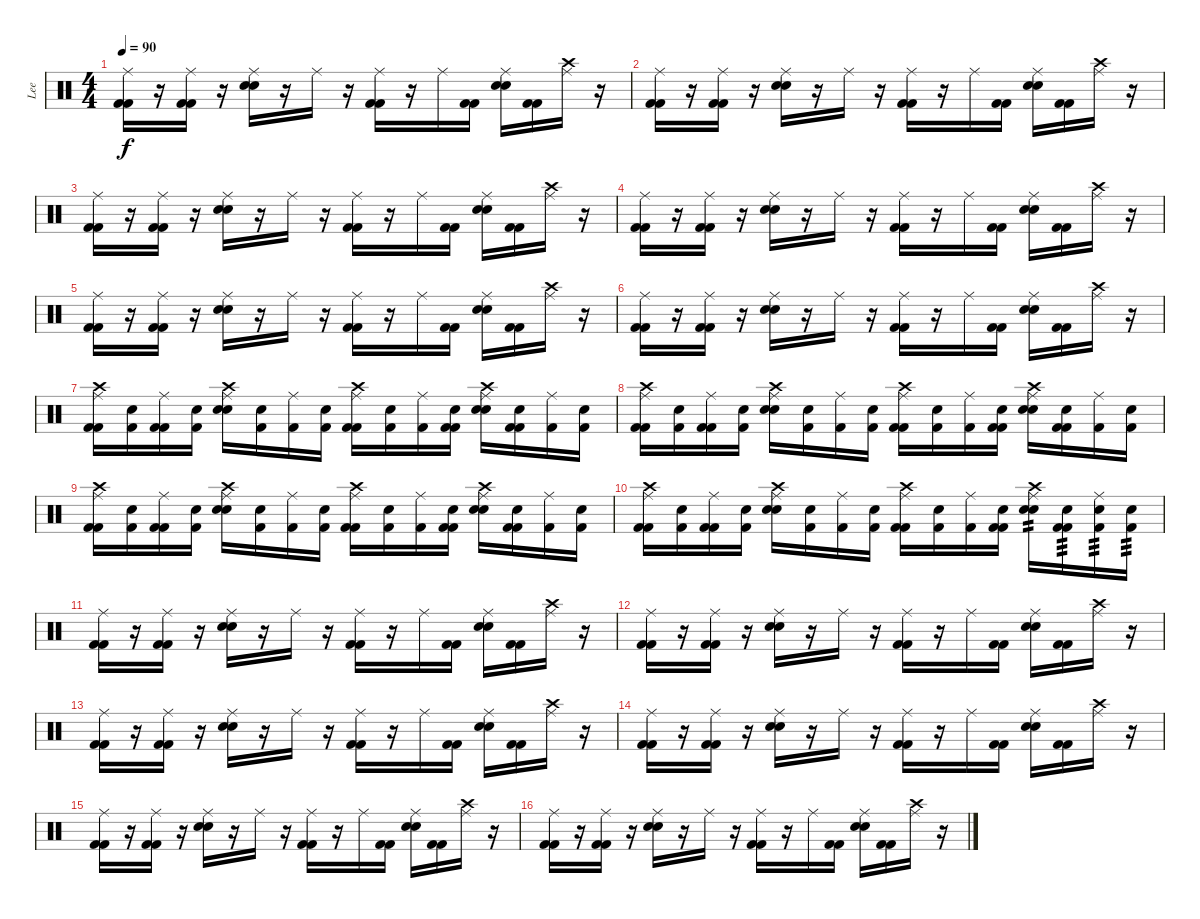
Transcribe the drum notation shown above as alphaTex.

\track ("Lee" "Lee") {instrument percussion}
\staff {score}
\articulation defaults
\ts (4 4)
\tempo 90
\clef neutral
\ks c
("Kick (hit) 2" "Kick (hit) 2" "Ride (middle)").16{dy f} r.16 ("Kick (hit) 2" "Kick (hit) 2" "Ride (middle)").16 r.16 ("Snare (hit) 2" "Snare (hit) 2" "Ride (middle)").16 r.16 "Ride (middle)".16 r.16 ("Kick (hit) 2" "Kick (hit) 2" "Ride (middle)").16 r.16 "Ride (middle)".16 ("Kick (hit) 2" "Kick (hit) 2").16 ("Snare (hit) 2" "Snare (hit) 2" "Ride (middle)").16 ("Kick (hit) 2" "Kick (hit) 2").16 ("Crash high (hit)" "Ride (middle)").16 r.16 |
("Kick (hit) 2" "Kick (hit) 2" "Ride (middle)").16 r.16 ("Kick (hit) 2" "Kick (hit) 2" "Ride (middle)").16 r.16 ("Snare (hit) 2" "Snare (hit) 2" "Ride (middle)").16 r.16 "Ride (middle)".16 r.16 ("Kick (hit) 2" "Kick (hit) 2" "Ride (middle)").16 r.16 "Ride (middle)".16 ("Kick (hit) 2" "Kick (hit) 2").16 ("Snare (hit) 2" "Snare (hit) 2" "Ride (middle)").16 ("Kick (hit) 2" "Kick (hit) 2").16 ("Crash high (hit)" "Ride (middle)").16 r.16 |
("Kick (hit) 2" "Kick (hit) 2" "Ride (middle)").16 r.16 ("Kick (hit) 2" "Kick (hit) 2" "Ride (middle)").16 r.16 ("Snare (hit) 2" "Snare (hit) 2" "Ride (middle)").16 r.16 "Ride (middle)".16 r.16 ("Kick (hit) 2" "Kick (hit) 2" "Ride (middle)").16 r.16 "Ride (middle)".16 ("Kick (hit) 2" "Kick (hit) 2").16 ("Snare (hit) 2" "Snare (hit) 2" "Ride (middle)").16 ("Kick (hit) 2" "Kick (hit) 2").16 ("Crash high (hit)" "Ride (middle)").16 r.16 |
("Kick (hit) 2" "Kick (hit) 2" "Ride (middle)").16 r.16 ("Kick (hit) 2" "Kick (hit) 2" "Ride (middle)").16 r.16 ("Snare (hit) 2" "Snare (hit) 2" "Ride (middle)").16 r.16 "Ride (middle)".16 r.16 ("Kick (hit) 2" "Kick (hit) 2" "Ride (middle)").16 r.16 "Ride (middle)".16 ("Kick (hit) 2" "Kick (hit) 2").16 ("Snare (hit) 2" "Snare (hit) 2" "Ride (middle)").16 ("Kick (hit) 2" "Kick (hit) 2").16 ("Crash high (hit)" "Ride (middle)").16 r.16 |
("Kick (hit) 2" "Kick (hit) 2" "Ride (middle)").16 r.16 ("Kick (hit) 2" "Kick (hit) 2" "Ride (middle)").16 r.16 ("Snare (hit) 2" "Snare (hit) 2" "Ride (middle)").16 r.16 "Ride (middle)".16 r.16 ("Kick (hit) 2" "Kick (hit) 2" "Ride (middle)").16 r.16 "Ride (middle)".16 ("Kick (hit) 2" "Kick (hit) 2").16 ("Snare (hit) 2" "Snare (hit) 2" "Ride (middle)").16 ("Kick (hit) 2" "Kick (hit) 2").16 ("Crash high (hit)" "Ride (middle)").16 r.16 |
("Kick (hit) 2" "Kick (hit) 2" "Ride (middle)").16 r.16 ("Kick (hit) 2" "Kick (hit) 2" "Ride (middle)").16 r.16 ("Snare (hit) 2" "Snare (hit) 2" "Ride (middle)").16 r.16 "Ride (middle)".16 r.16 ("Kick (hit) 2" "Kick (hit) 2" "Ride (middle)").16 r.16 "Ride (middle)".16 ("Kick (hit) 2" "Kick (hit) 2").16 ("Snare (hit) 2" "Snare (hit) 2" "Ride (middle)").16 ("Kick (hit) 2" "Kick (hit) 2").16 ("Crash high (hit)" "Ride (middle)").16 r.16 |
("Crash high (hit)" "Kick (hit) 2" "Kick (hit) 2" "Ride (middle)").16 ("Snare (hit) 2" "Kick (hit) 2").16 ("Kick (hit) 2" "Kick (hit) 2" "Ride (middle)").16 ("Snare (hit) 2" "Kick (hit) 2").16 ("Crash high (hit)" "Snare (hit) 2" "Snare (hit) 2" "Ride (middle)").16 ("Snare (hit) 2" "Kick (hit) 2").16 ("Kick (hit) 2" "Ride (middle)").16 ("Snare (hit) 2" "Kick (hit) 2").16 ("Crash high (hit)" "Kick (hit) 2" "Kick (hit) 2" "Ride (middle)").16 ("Snare (hit) 2" "Kick (hit) 2").16 ("Kick (hit) 2" "Ride (middle)").16 ("Snare (hit) 2" "Kick (hit) 2" "Kick (hit) 2").16 ("Crash high (hit)" "Snare (hit) 2" "Snare (hit) 2" "Ride (middle)").16 ("Snare (hit) 2" "Kick (hit) 2" "Kick (hit) 2").16 ("Kick (hit) 2" "Ride (middle)").16 ("Snare (hit) 2" "Kick (hit) 2").16 |
("Crash high (hit)" "Kick (hit) 2" "Kick (hit) 2" "Ride (middle)").16 ("Snare (hit) 2" "Kick (hit) 2").16 ("Kick (hit) 2" "Kick (hit) 2" "Ride (middle)").16 ("Snare (hit) 2" "Kick (hit) 2").16 ("Crash high (hit)" "Snare (hit) 2" "Snare (hit) 2" "Ride (middle)").16 ("Snare (hit) 2" "Kick (hit) 2").16 ("Kick (hit) 2" "Ride (middle)").16 ("Snare (hit) 2" "Kick (hit) 2").16 ("Crash high (hit)" "Kick (hit) 2" "Kick (hit) 2" "Ride (middle)").16 ("Snare (hit) 2" "Kick (hit) 2").16 ("Kick (hit) 2" "Ride (middle)").16 ("Snare (hit) 2" "Kick (hit) 2" "Kick (hit) 2").16 ("Crash high (hit)" "Snare (hit) 2" "Snare (hit) 2" "Ride (middle)").16 ("Snare (hit) 2" "Kick (hit) 2" "Kick (hit) 2").16 ("Kick (hit) 2" "Ride (middle)").16 ("Snare (hit) 2" "Kick (hit) 2").16 |
("Crash high (hit)" "Kick (hit) 2" "Kick (hit) 2" "Ride (middle)").16 ("Snare (hit) 2" "Kick (hit) 2").16 ("Kick (hit) 2" "Kick (hit) 2" "Ride (middle)").16 ("Snare (hit) 2" "Kick (hit) 2").16 ("Crash high (hit)" "Snare (hit) 2" "Snare (hit) 2" "Ride (middle)").16 ("Snare (hit) 2" "Kick (hit) 2").16 ("Kick (hit) 2" "Ride (middle)").16 ("Snare (hit) 2" "Kick (hit) 2").16 ("Crash high (hit)" "Kick (hit) 2" "Kick (hit) 2" "Ride (middle)").16 ("Snare (hit) 2" "Kick (hit) 2").16 ("Kick (hit) 2" "Ride (middle)").16 ("Snare (hit) 2" "Kick (hit) 2" "Kick (hit) 2").16 ("Crash high (hit)" "Snare (hit) 2" "Snare (hit) 2" "Ride (middle)").16 ("Snare (hit) 2" "Kick (hit) 2" "Kick (hit) 2").16 ("Kick (hit) 2" "Ride (middle)").16 ("Snare (hit) 2" "Kick (hit) 2").16 |
("Crash high (hit)" "Kick (hit) 2" "Kick (hit) 2" "Ride (middle)").16 ("Snare (hit) 2" "Kick (hit) 2").16 ("Kick (hit) 2" "Kick (hit) 2" "Ride (middle)").16 ("Snare (hit) 2" "Kick (hit) 2").16 ("Crash high (hit)" "Snare (hit) 2" "Snare (hit) 2" "Ride (middle)").16 ("Snare (hit) 2" "Kick (hit) 2").16 ("Kick (hit) 2" "Ride (middle)").16 ("Snare (hit) 2" "Kick (hit) 2").16 ("Crash high (hit)" "Kick (hit) 2" "Kick (hit) 2" "Ride (middle)").16 ("Snare (hit) 2" "Kick (hit) 2").16 ("Kick (hit) 2" "Ride (middle)").16 ("Snare (hit) 2" "Kick (hit) 2" "Kick (hit) 2").16 ("Crash high (hit)" "Snare (hit) 2" "Snare (hit) 2" "Ride (middle)").16{tp 2} ("Snare (hit) 2" "Kick (hit) 2" "Kick (hit) 2").16{tp 3} ("Snare (hit) 2" "Kick (hit) 2" "Ride (middle)").16{tp 3} ("Snare (hit) 2" "Kick (hit) 2").16{tp 3} |
("Kick (hit) 2" "Kick (hit) 2" "Ride (middle)").16 r.16 ("Kick (hit) 2" "Kick (hit) 2" "Ride (middle)").16 r.16 ("Snare (hit) 2" "Snare (hit) 2" "Ride (middle)").16 r.16 "Ride (middle)".16 r.16 ("Kick (hit) 2" "Kick (hit) 2" "Ride (middle)").16 r.16 "Ride (middle)".16 ("Kick (hit) 2" "Kick (hit) 2").16 ("Snare (hit) 2" "Snare (hit) 2" "Ride (middle)").16 ("Kick (hit) 2" "Kick (hit) 2").16 ("Crash high (hit)" "Ride (middle)").16 r.16 |
("Kick (hit) 2" "Kick (hit) 2" "Ride (middle)").16 r.16 ("Kick (hit) 2" "Kick (hit) 2" "Ride (middle)").16 r.16 ("Snare (hit) 2" "Snare (hit) 2" "Ride (middle)").16 r.16 "Ride (middle)".16 r.16 ("Kick (hit) 2" "Kick (hit) 2" "Ride (middle)").16 r.16 "Ride (middle)".16 ("Kick (hit) 2" "Kick (hit) 2").16 ("Snare (hit) 2" "Snare (hit) 2" "Ride (middle)").16 ("Kick (hit) 2" "Kick (hit) 2").16 ("Crash high (hit)" "Ride (middle)").16 r.16 |
("Kick (hit) 2" "Kick (hit) 2" "Ride (middle)").16 r.16 ("Kick (hit) 2" "Kick (hit) 2" "Ride (middle)").16 r.16 ("Snare (hit) 2" "Snare (hit) 2" "Ride (middle)").16 r.16 "Ride (middle)".16 r.16 ("Kick (hit) 2" "Kick (hit) 2" "Ride (middle)").16 r.16 "Ride (middle)".16 ("Kick (hit) 2" "Kick (hit) 2").16 ("Snare (hit) 2" "Snare (hit) 2" "Ride (middle)").16 ("Kick (hit) 2" "Kick (hit) 2").16 ("Crash high (hit)" "Ride (middle)").16 r.16 |
("Kick (hit) 2" "Kick (hit) 2" "Ride (middle)").16 r.16 ("Kick (hit) 2" "Kick (hit) 2" "Ride (middle)").16 r.16 ("Snare (hit) 2" "Snare (hit) 2" "Ride (middle)").16 r.16 "Ride (middle)".16 r.16 ("Kick (hit) 2" "Kick (hit) 2" "Ride (middle)").16 r.16 "Ride (middle)".16 ("Kick (hit) 2" "Kick (hit) 2").16 ("Snare (hit) 2" "Snare (hit) 2" "Ride (middle)").16 ("Kick (hit) 2" "Kick (hit) 2").16 ("Crash high (hit)" "Ride (middle)").16 r.16 |
("Kick (hit) 2" "Kick (hit) 2" "Ride (middle)").16 r.16 ("Kick (hit) 2" "Kick (hit) 2" "Ride (middle)").16 r.16 ("Snare (hit) 2" "Snare (hit) 2" "Ride (middle)").16 r.16 "Ride (middle)".16 r.16 ("Kick (hit) 2" "Kick (hit) 2" "Ride (middle)").16 r.16 "Ride (middle)".16 ("Kick (hit) 2" "Kick (hit) 2").16 ("Snare (hit) 2" "Snare (hit) 2" "Ride (middle)").16 ("Kick (hit) 2" "Kick (hit) 2").16 ("Crash high (hit)" "Ride (middle)").16 r.16 |
("Kick (hit) 2" "Kick (hit) 2" "Ride (middle)").16 r.16 ("Kick (hit) 2" "Kick (hit) 2" "Ride (middle)").16 r.16 ("Snare (hit) 2" "Snare (hit) 2" "Ride (middle)").16 r.16 "Ride (middle)".16 r.16 ("Kick (hit) 2" "Kick (hit) 2" "Ride (middle)").16 r.16 "Ride (middle)".16 ("Kick (hit) 2" "Kick (hit) 2").16 ("Snare (hit) 2" "Snare (hit) 2" "Ride (middle)").16 ("Kick (hit) 2" "Kick (hit) 2").16 ("Crash high (hit)" "Ride (middle)").16 r.16
